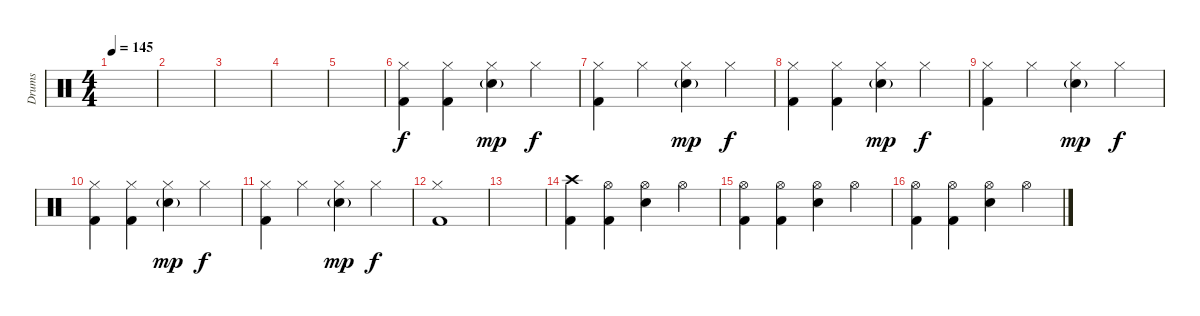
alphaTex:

\track ("Drums" "Drums") {instrument percussion}
\staff {score}
\articulation defaults
\ts (4 4)
\tempo 145
\clef neutral
\ks c
|
|
|
|
|
("Kick (hit) 2" "Hi-Hat (closed)").4 ("Kick (hit) 2" "Hi-Hat (closed)").4 ("Snare (hit) 2"{g} "Hi-Hat (closed)").4{dy mp} "Hi-Hat (closed)".4{dy f} |
("Kick (hit) 2" "Hi-Hat (closed)").4 "Hi-Hat (closed)".4 ("Snare (hit) 2"{g} "Hi-Hat (closed)").4{dy mp} "Hi-Hat (closed)".4{dy f} |
("Kick (hit) 2" "Hi-Hat (closed)").4 ("Kick (hit) 2" "Hi-Hat (closed)").4 ("Snare (hit) 2"{g} "Hi-Hat (closed)").4{dy mp} "Hi-Hat (closed)".4{dy f} |
("Kick (hit) 2" "Hi-Hat (closed)").4 "Hi-Hat (closed)".4 ("Snare (hit) 2"{g} "Hi-Hat (closed)").4{dy mp} "Hi-Hat (closed)".4{dy f} |
("Kick (hit) 2" "Hi-Hat (closed)").4 ("Kick (hit) 2" "Hi-Hat (closed)").4 ("Snare (hit) 2"{g} "Hi-Hat (closed)").4{dy mp} "Hi-Hat (closed)".4{dy f} |
("Kick (hit) 2" "Hi-Hat (closed)").4 "Hi-Hat (closed)".4 ("Snare (hit) 2"{g} "Hi-Hat (closed)").4{dy mp} "Hi-Hat (closed)".4{dy f} |
("Kick (hit) 2" "Hi-Hat (closed)").1 |
|
("Crash high (hit)" "Kick (hit) 2").4{volume 14} ("Kick (hit) 2" "Hi-Hat (open)").4 ("Snare (hit) 2" "Hi-Hat (open)").4 "Hi-Hat (open)".4 |
("Kick (hit) 2" "Hi-Hat (open)").4 ("Kick (hit) 2" "Hi-Hat (open)").4 ("Snare (hit) 2" "Hi-Hat (open)").4 "Hi-Hat (open)".4 |
("Kick (hit) 2" "Hi-Hat (open)").4 ("Kick (hit) 2" "Hi-Hat (open)").4 ("Snare (hit) 2" "Hi-Hat (open)").4 "Hi-Hat (open)".4
